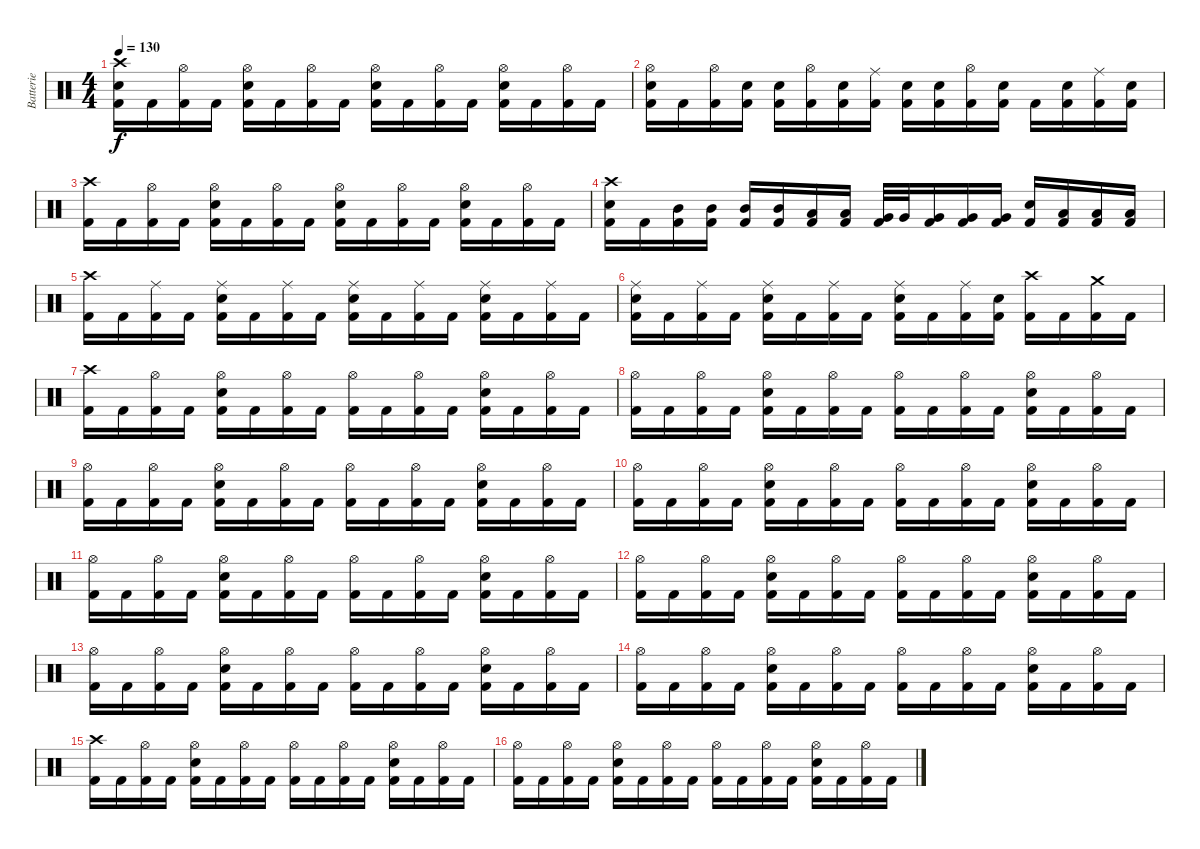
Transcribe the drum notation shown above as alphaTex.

\track ("Batterie" "Batterie") {instrument percussion}
\staff {score}
\articulation defaults
\ts (4 4)
\tempo 130
\clef neutral
\ks c
("Crash high (hit)" "Electric Snare (hit)" "Kick (hit) 2").16{dy f} "Kick (hit) 2".16 ("Hi-Hat (open)" "Kick (hit) 2").16 "Kick (hit) 2".16 ("Hi-Hat (open)" "Electric Snare (hit)" "Kick (hit) 2").16 "Kick (hit) 2".16 ("Hi-Hat (open)" "Kick (hit) 2").16 "Kick (hit) 2".16 ("Hi-Hat (open)" "Electric Snare (hit)" "Kick (hit) 2").16 "Kick (hit) 2".16 ("Hi-Hat (open)" "Kick (hit) 2").16 "Kick (hit) 2".16 ("Hi-Hat (open)" "Electric Snare (hit)" "Kick (hit) 2").16 "Kick (hit) 2".16 ("Hi-Hat (open)" "Kick (hit) 2").16 "Kick (hit) 2".16 |
("Hi-Hat (open)" "Electric Snare (hit)" "Kick (hit) 2").16 "Kick (hit) 2".16 ("Hi-Hat (open)" "Kick (hit) 2").16 ("Electric Snare (hit)" "Kick (hit) 2").16 ("Electric Snare (hit)" "Kick (hit) 2").16 ("Hi-Hat (open)" "Kick (hit) 2").16 ("Electric Snare (hit)" "Kick (hit) 2").16 ("Ride (middle)" "Kick (hit) 2").16 ("Electric Snare (hit)" "Kick (hit) 2").16 ("Electric Snare (hit)" "Kick (hit) 2").16 ("Hi-Hat (open)" "Kick (hit) 2").16 ("Electric Snare (hit)" "Kick (hit) 2").16 "Kick (hit) 2".16 ("Electric Snare (hit)" "Kick (hit) 2").16 ("Ride (middle)" "Kick (hit) 2").16 ("Electric Snare (hit)" "Kick (hit) 2").16 |
("Crash high (hit)" "Kick (hit) 2").16 "Kick (hit) 2".16 ("Hi-Hat (open)" "Kick (hit) 2").16 "Kick (hit) 2".16 ("Hi-Hat (open)" "Electric Snare (hit)" "Kick (hit) 2").16 "Kick (hit) 2".16 ("Hi-Hat (open)" "Kick (hit) 2").16 "Kick (hit) 2".16 ("Hi-Hat (open)" "Electric Snare (hit)" "Kick (hit) 2").16 "Kick (hit) 2".16 ("Hi-Hat (open)" "Kick (hit) 2").16 "Kick (hit) 2".16 ("Hi-Hat (open)" "Electric Snare (hit)" "Kick (hit) 2").16 "Kick (hit) 2".16 ("Hi-Hat (open)" "Kick (hit) 2").16 "Kick (hit) 2".16 |
("Crash high (hit)" "Electric Snare (hit)" "Kick (hit) 2").16 "Kick (hit) 2".16 ("Mid Tom (hit)" "Kick (hit) 2").16 ("Mid Tom (hit)" "Kick (hit) 2").16 ("Mid Tom (hit)" "Kick (hit) 2").16 ("Mid Tom (hit)" "Kick (hit) 2").16 ("Low Tom (hit)" "Kick (hit) 2").16 ("Low Tom (hit)" "Kick (hit) 2").16 ("Very Low Tom (hit)" "Kick (hit) 2").32 "Very Low Tom (hit)".32 ("Very Low Tom (hit)" "Kick (hit) 2").16 ("Very Low Tom (hit)" "Kick (hit) 2").16 ("Very Low Tom (hit)" "Kick (hit) 2").16 ("Electric Snare (hit)" "Kick (hit) 2").16 ("Low Tom (hit)" "Kick (hit) 2").16 ("Low Tom (hit)" "Kick (hit) 2").16 ("Low Tom (hit)" "Kick (hit) 2").16 |
("Crash high (hit)" "Kick (hit) 2").16 "Kick (hit) 2".16 ("Ride (middle)" "Kick (hit) 2").16 "Kick (hit) 2".16 ("Ride (middle)" "Electric Snare (hit)" "Kick (hit) 2").16 "Kick (hit) 2".16 ("Ride (middle)" "Kick (hit) 2").16 "Kick (hit) 2".16 ("Ride (middle)" "Electric Snare (hit)" "Kick (hit) 2").16 "Kick (hit) 2".16 ("Ride (middle)" "Kick (hit) 2").16 "Kick (hit) 2".16 ("Ride (middle)" "Electric Snare (hit)" "Kick (hit) 2").16 "Kick (hit) 2".16 ("Ride (middle)" "Kick (hit) 2").16 "Kick (hit) 2".16 |
("Ride (middle)" "Electric Snare (hit)" "Kick (hit) 2").16 "Kick (hit) 2".16 ("Ride (middle)" "Kick (hit) 2").16 "Kick (hit) 2".16 ("Ride (middle)" "Electric Snare (hit)" "Kick (hit) 2").16 "Kick (hit) 2".16 ("Ride (middle)" "Kick (hit) 2").16 "Kick (hit) 2".16 ("Ride (middle)" "Electric Snare (hit)" "Kick (hit) 2").16 "Kick (hit) 2".16 ("Ride (middle)" "Kick (hit) 2").16 ("Electric Snare (hit)" "Kick (hit) 2").16 ("Crash high (hit)" "Kick (hit) 2").16 "Kick (hit) 2".16 ("Crash medium (hit)" "Kick (hit) 2").16 "Kick (hit) 2".16 |
("Crash high (hit)" "Kick (hit) 2").16 "Kick (hit) 2".16 ("Hi-Hat (open)" "Kick (hit) 2").16 "Kick (hit) 2".16 ("Hi-Hat (open)" "Electric Snare (hit)" "Kick (hit) 2").16 "Kick (hit) 2".16 ("Hi-Hat (open)" "Kick (hit) 2").16 "Kick (hit) 2".16 ("Hi-Hat (open)" "Kick (hit) 2").16 "Kick (hit) 2".16 ("Hi-Hat (open)" "Kick (hit) 2").16 "Kick (hit) 2".16 ("Hi-Hat (open)" "Electric Snare (hit)" "Kick (hit) 2").16 "Kick (hit) 2".16 ("Hi-Hat (open)" "Kick (hit) 2").16 "Kick (hit) 2".16 |
("Hi-Hat (open)" "Kick (hit) 2").16 "Kick (hit) 2".16 ("Hi-Hat (open)" "Kick (hit) 2").16 "Kick (hit) 2".16 ("Hi-Hat (open)" "Electric Snare (hit)" "Kick (hit) 2").16 "Kick (hit) 2".16 ("Hi-Hat (open)" "Kick (hit) 2").16 "Kick (hit) 2".16 ("Hi-Hat (open)" "Kick (hit) 2").16 "Kick (hit) 2".16 ("Hi-Hat (open)" "Kick (hit) 2").16 "Kick (hit) 2".16 ("Hi-Hat (open)" "Electric Snare (hit)" "Kick (hit) 2").16 "Kick (hit) 2".16 ("Hi-Hat (open)" "Kick (hit) 2").16 "Kick (hit) 2".16 |
("Hi-Hat (open)" "Kick (hit) 2").16 "Kick (hit) 2".16 ("Hi-Hat (open)" "Kick (hit) 2").16 "Kick (hit) 2".16 ("Hi-Hat (open)" "Electric Snare (hit)" "Kick (hit) 2").16 "Kick (hit) 2".16 ("Hi-Hat (open)" "Kick (hit) 2").16 "Kick (hit) 2".16 ("Hi-Hat (open)" "Kick (hit) 2").16 "Kick (hit) 2".16 ("Hi-Hat (open)" "Kick (hit) 2").16 "Kick (hit) 2".16 ("Hi-Hat (open)" "Electric Snare (hit)" "Kick (hit) 2").16 "Kick (hit) 2".16 ("Hi-Hat (open)" "Kick (hit) 2").16 "Kick (hit) 2".16 |
("Hi-Hat (open)" "Kick (hit) 2").16 "Kick (hit) 2".16 ("Hi-Hat (open)" "Kick (hit) 2").16 "Kick (hit) 2".16 ("Hi-Hat (open)" "Electric Snare (hit)" "Kick (hit) 2").16 "Kick (hit) 2".16 ("Hi-Hat (open)" "Kick (hit) 2").16 "Kick (hit) 2".16 ("Hi-Hat (open)" "Kick (hit) 2").16 "Kick (hit) 2".16 ("Hi-Hat (open)" "Kick (hit) 2").16 "Kick (hit) 2".16 ("Hi-Hat (open)" "Electric Snare (hit)" "Kick (hit) 2").16 "Kick (hit) 2".16 ("Hi-Hat (open)" "Kick (hit) 2").16 "Kick (hit) 2".16 |
("Hi-Hat (open)" "Kick (hit) 2").16 "Kick (hit) 2".16 ("Hi-Hat (open)" "Kick (hit) 2").16 "Kick (hit) 2".16 ("Hi-Hat (open)" "Electric Snare (hit)" "Kick (hit) 2").16 "Kick (hit) 2".16 ("Hi-Hat (open)" "Kick (hit) 2").16 "Kick (hit) 2".16 ("Hi-Hat (open)" "Kick (hit) 2").16 "Kick (hit) 2".16 ("Hi-Hat (open)" "Kick (hit) 2").16 "Kick (hit) 2".16 ("Hi-Hat (open)" "Electric Snare (hit)" "Kick (hit) 2").16 "Kick (hit) 2".16 ("Hi-Hat (open)" "Kick (hit) 2").16 "Kick (hit) 2".16 |
("Hi-Hat (open)" "Kick (hit) 2").16 "Kick (hit) 2".16 ("Hi-Hat (open)" "Kick (hit) 2").16 "Kick (hit) 2".16 ("Hi-Hat (open)" "Electric Snare (hit)" "Kick (hit) 2").16 "Kick (hit) 2".16 ("Hi-Hat (open)" "Kick (hit) 2").16 "Kick (hit) 2".16 ("Hi-Hat (open)" "Kick (hit) 2").16 "Kick (hit) 2".16 ("Hi-Hat (open)" "Kick (hit) 2").16 "Kick (hit) 2".16 ("Hi-Hat (open)" "Electric Snare (hit)" "Kick (hit) 2").16 "Kick (hit) 2".16 ("Hi-Hat (open)" "Kick (hit) 2").16 "Kick (hit) 2".16 |
("Hi-Hat (open)" "Kick (hit) 2").16 "Kick (hit) 2".16 ("Hi-Hat (open)" "Kick (hit) 2").16 "Kick (hit) 2".16 ("Hi-Hat (open)" "Electric Snare (hit)" "Kick (hit) 2").16 "Kick (hit) 2".16 ("Hi-Hat (open)" "Kick (hit) 2").16 "Kick (hit) 2".16 ("Hi-Hat (open)" "Kick (hit) 2").16 "Kick (hit) 2".16 ("Hi-Hat (open)" "Kick (hit) 2").16 "Kick (hit) 2".16 ("Hi-Hat (open)" "Electric Snare (hit)" "Kick (hit) 2").16 "Kick (hit) 2".16 ("Hi-Hat (open)" "Kick (hit) 2").16 "Kick (hit) 2".16 |
("Hi-Hat (open)" "Kick (hit) 2").16 "Kick (hit) 2".16 ("Hi-Hat (open)" "Kick (hit) 2").16 "Kick (hit) 2".16 ("Hi-Hat (open)" "Electric Snare (hit)" "Kick (hit) 2").16 "Kick (hit) 2".16 ("Hi-Hat (open)" "Kick (hit) 2").16 "Kick (hit) 2".16 ("Hi-Hat (open)" "Kick (hit) 2").16 "Kick (hit) 2".16 ("Hi-Hat (open)" "Kick (hit) 2").16 "Kick (hit) 2".16 ("Hi-Hat (open)" "Electric Snare (hit)" "Kick (hit) 2").16 "Kick (hit) 2".16 ("Hi-Hat (open)" "Kick (hit) 2").16 "Kick (hit) 2".16 |
("Crash high (hit)" "Kick (hit) 2").16 "Kick (hit) 2".16 ("Hi-Hat (open)" "Kick (hit) 2").16 "Kick (hit) 2".16 ("Hi-Hat (open)" "Electric Snare (hit)" "Kick (hit) 2").16 "Kick (hit) 2".16 ("Hi-Hat (open)" "Kick (hit) 2").16 "Kick (hit) 2".16 ("Hi-Hat (open)" "Kick (hit) 2").16 "Kick (hit) 2".16 ("Hi-Hat (open)" "Kick (hit) 2").16 "Kick (hit) 2".16 ("Hi-Hat (open)" "Electric Snare (hit)" "Kick (hit) 2").16 "Kick (hit) 2".16 ("Hi-Hat (open)" "Kick (hit) 2").16 "Kick (hit) 2".16 |
("Hi-Hat (open)" "Kick (hit) 2").16 "Kick (hit) 2".16 ("Hi-Hat (open)" "Kick (hit) 2").16 "Kick (hit) 2".16 ("Hi-Hat (open)" "Electric Snare (hit)" "Kick (hit) 2").16 "Kick (hit) 2".16 ("Hi-Hat (open)" "Kick (hit) 2").16 "Kick (hit) 2".16 ("Hi-Hat (open)" "Kick (hit) 2").16 "Kick (hit) 2".16 ("Hi-Hat (open)" "Kick (hit) 2").16 "Kick (hit) 2".16 ("Hi-Hat (open)" "Electric Snare (hit)" "Kick (hit) 2").16 "Kick (hit) 2".16 ("Hi-Hat (open)" "Kick (hit) 2").16 "Kick (hit) 2".16
